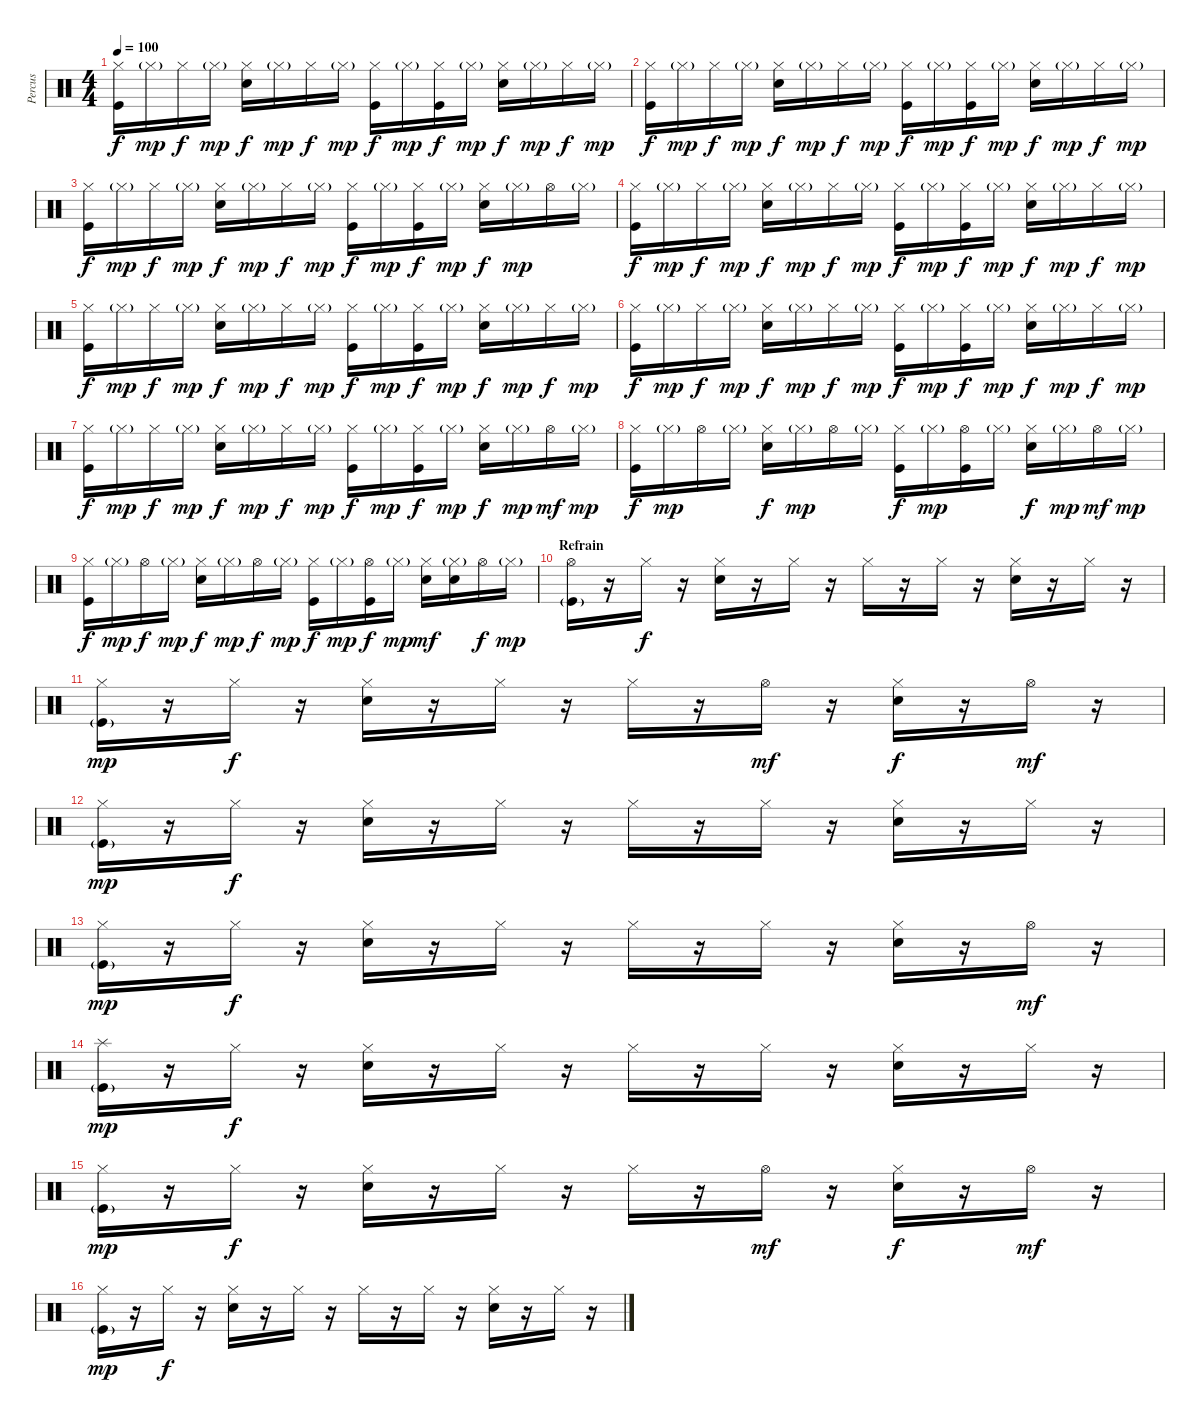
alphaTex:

\track ("Percus" "Percus") {instrument percussion}
\staff {score}
\articulation defaults
\ts (4 4)
\tempo 100
\clef neutral
\ks c
("Hi-Hat (closed)" "Kick (hit)").16{dy f} "Hi-Hat (closed)"{g}.16{dy mp} "Hi-Hat (closed)".16{dy f} "Hi-Hat (closed)"{g}.16{dy mp} ("Hi-Hat (closed)" "Snare (hit) 2").16{dy f} "Hi-Hat (closed)"{g}.16{dy mp} "Hi-Hat (closed)".16{dy f} "Hi-Hat (closed)"{g}.16{dy mp} ("Hi-Hat (closed)" "Kick (hit)").16{dy f} "Hi-Hat (closed)"{g}.16{dy mp} ("Hi-Hat (closed)" "Kick (hit)").16{dy f} "Hi-Hat (closed)"{g}.16{dy mp} ("Hi-Hat (closed)" "Snare (hit) 2").16{dy f} "Hi-Hat (closed)"{g}.16{dy mp} "Hi-Hat (closed)".16{dy f} "Hi-Hat (closed)"{g}.16{dy mp} |
("Hi-Hat (closed)" "Kick (hit)").16{dy f} "Hi-Hat (closed)"{g}.16{dy mp} "Hi-Hat (closed)".16{dy f} "Hi-Hat (closed)"{g}.16{dy mp} ("Hi-Hat (closed)" "Snare (hit) 2").16{dy f} "Hi-Hat (closed)"{g}.16{dy mp} "Hi-Hat (closed)".16{dy f} "Hi-Hat (closed)"{g}.16{dy mp} ("Hi-Hat (closed)" "Kick (hit)").16{dy f} "Hi-Hat (closed)"{g}.16{dy mp} ("Hi-Hat (closed)" "Kick (hit)").16{dy f} "Hi-Hat (closed)"{g}.16{dy mp} ("Hi-Hat (closed)" "Snare (hit) 2").16{dy f} "Hi-Hat (closed)"{g}.16{dy mp} "Hi-Hat (closed)".16{dy f} "Hi-Hat (closed)"{g}.16{dy mp} |
("Hi-Hat (closed)" "Kick (hit)").16{dy f} "Hi-Hat (closed)"{g}.16{dy mp} "Hi-Hat (closed)".16{dy f} "Hi-Hat (closed)"{g}.16{dy mp} ("Hi-Hat (closed)" "Snare (hit) 2").16{dy f} "Hi-Hat (closed)"{g}.16{dy mp} "Hi-Hat (closed)".16{dy f} "Hi-Hat (closed)"{g}.16{dy mp} ("Hi-Hat (closed)" "Kick (hit)").16{dy f} "Hi-Hat (closed)"{g}.16{dy mp} ("Hi-Hat (closed)" "Kick (hit)").16{dy f} "Hi-Hat (closed)"{g}.16{dy mp} ("Hi-Hat (closed)" "Snare (hit) 2").16{dy f} "Hi-Hat (closed)"{g}.16{dy mp} "Hi-Hat (open)".16 "Hi-Hat (closed)"{g}.16 |
("Hi-Hat (closed)" "Kick (hit)").16{dy f} "Hi-Hat (closed)"{g}.16{dy mp} "Hi-Hat (closed)".16{dy f} "Hi-Hat (closed)"{g}.16{dy mp} ("Hi-Hat (closed)" "Snare (hit) 2").16{dy f} "Hi-Hat (closed)"{g}.16{dy mp} "Hi-Hat (closed)".16{dy f} "Hi-Hat (closed)"{g}.16{dy mp} ("Hi-Hat (closed)" "Kick (hit)").16{dy f} "Hi-Hat (closed)"{g}.16{dy mp} ("Hi-Hat (closed)" "Kick (hit)").16{dy f} "Hi-Hat (closed)"{g}.16{dy mp} ("Hi-Hat (closed)" "Snare (hit) 2").16{dy f} "Hi-Hat (closed)"{g}.16{dy mp} "Hi-Hat (closed)".16{dy f} "Hi-Hat (closed)"{g}.16{dy mp} |
("Hi-Hat (closed)" "Kick (hit)").16{dy f} "Hi-Hat (closed)"{g}.16{dy mp} "Hi-Hat (closed)".16{dy f} "Hi-Hat (closed)"{g}.16{dy mp} ("Hi-Hat (closed)" "Snare (hit) 2").16{dy f} "Hi-Hat (closed)"{g}.16{dy mp} "Hi-Hat (closed)".16{dy f} "Hi-Hat (closed)"{g}.16{dy mp} ("Hi-Hat (closed)" "Kick (hit)").16{dy f} "Hi-Hat (closed)"{g}.16{dy mp} ("Hi-Hat (closed)" "Kick (hit)").16{dy f} "Hi-Hat (closed)"{g}.16{dy mp} ("Hi-Hat (closed)" "Snare (hit) 2").16{dy f} "Hi-Hat (closed)"{g}.16{dy mp} "Hi-Hat (closed)".16{dy f} "Hi-Hat (closed)"{g}.16{dy mp} |
("Hi-Hat (closed)" "Kick (hit)").16{dy f} "Hi-Hat (closed)"{g}.16{dy mp} "Hi-Hat (closed)".16{dy f} "Hi-Hat (closed)"{g}.16{dy mp} ("Hi-Hat (closed)" "Snare (hit) 2").16{dy f} "Hi-Hat (closed)"{g}.16{dy mp} "Hi-Hat (closed)".16{dy f} "Hi-Hat (closed)"{g}.16{dy mp} ("Hi-Hat (closed)" "Kick (hit)").16{dy f} "Hi-Hat (closed)"{g}.16{dy mp} ("Hi-Hat (closed)" "Kick (hit)").16{dy f} "Hi-Hat (closed)"{g}.16{dy mp} ("Hi-Hat (closed)" "Snare (hit) 2").16{dy f} "Hi-Hat (closed)"{g}.16{dy mp} "Hi-Hat (closed)".16{dy f} "Hi-Hat (closed)"{g}.16{dy mp} |
("Hi-Hat (closed)" "Kick (hit)").16{dy f} "Hi-Hat (closed)"{g}.16{dy mp} "Hi-Hat (closed)".16{dy f} "Hi-Hat (closed)"{g}.16{dy mp} ("Hi-Hat (closed)" "Snare (hit) 2").16{dy f} "Hi-Hat (closed)"{g}.16{dy mp} "Hi-Hat (closed)".16{dy f} "Hi-Hat (closed)"{g}.16{dy mp} ("Hi-Hat (closed)" "Kick (hit)").16{dy f} "Hi-Hat (closed)"{g}.16{dy mp} ("Hi-Hat (closed)" "Kick (hit)").16{dy f} "Hi-Hat (closed)"{g}.16{dy mp} ("Hi-Hat (closed)" "Snare (hit) 2").16{dy f} "Hi-Hat (closed)"{g}.16{dy mp} "Hi-Hat (open)".16{dy mf} "Hi-Hat (closed)"{g}.16{dy mp} |
("Hi-Hat (closed)" "Kick (hit)").16{dy f} "Hi-Hat (closed)"{g}.16{dy mp} "Hi-Hat (open)".16 "Hi-Hat (closed)"{g}.16 ("Hi-Hat (closed)" "Snare (hit) 2").16{dy f} "Hi-Hat (closed)"{g}.16{dy mp} "Hi-Hat (open)".16 "Hi-Hat (closed)"{g}.16 ("Hi-Hat (closed)" "Kick (hit)").16{dy f} "Hi-Hat (closed)"{g}.16{dy mp} ("Hi-Hat (open)" "Kick (hit)").16 "Hi-Hat (closed)"{g}.16 ("Hi-Hat (closed)" "Snare (hit) 2").16{dy f} "Hi-Hat (closed)"{g}.16{dy mp} "Hi-Hat (open)".16{dy mf} "Hi-Hat (closed)"{g}.16{dy mp} |
("Hi-Hat (closed)" "Kick (hit)").16{dy f} "Hi-Hat (closed)"{g}.16{dy mp} "Hi-Hat (open)".16{dy f} "Hi-Hat (closed)"{g}.16{dy mp} ("Hi-Hat (closed)" "Snare (hit) 2").16{dy f} "Hi-Hat (closed)"{g}.16{dy mp} "Hi-Hat (open)".16{dy f} "Hi-Hat (closed)"{g}.16{dy mp} ("Hi-Hat (closed)" "Kick (hit)").16{dy f} "Hi-Hat (closed)"{g}.16{dy mp} ("Hi-Hat (open)" "Kick (hit)").16{dy f} "Hi-Hat (closed)"{g}.16{dy mp} ("Hi-Hat (closed)" "Electric Snare (hit)").16{dy mf} ("Hi-Hat (closed)"{g} "Electric Snare (hit)").16 "Hi-Hat (open)".16{dy f} "Hi-Hat (closed)"{g}.16{dy mp} |
\section ("" "Refrain")
("Hi-Hat (open)" "Kick (hit)"{g}).16 r.16 "Hi-Hat (closed)".16{dy f} r.16 ("Hi-Hat (closed)" "Electric Snare (hit)").16 r.16 "Hi-Hat (closed)".16 r.16 "Hi-Hat (closed)".16 r.16 "Hi-Hat (closed)".16 r.16 ("Hi-Hat (closed)" "Electric Snare (hit)").16 r.16 "Hi-Hat (closed)".16 r.16 |
("Hi-Hat (closed)" "Kick (hit)"{g}).16{dy mp} r.16 "Hi-Hat (closed)".16{dy f} r.16 ("Hi-Hat (closed)" "Electric Snare (hit)").16 r.16 "Hi-Hat (closed)".16 r.16 "Hi-Hat (closed)".16 r.16 "Hi-Hat (open)".16{dy mf} r.16 ("Hi-Hat (closed)" "Electric Snare (hit)").16{dy f} r.16 "Hi-Hat (open)".16{dy mf} r.16 |
("Hi-Hat (closed)" "Kick (hit)"{g}).16{dy mp} r.16 "Hi-Hat (closed)".16{dy f} r.16 ("Hi-Hat (closed)" "Electric Snare (hit)").16 r.16 "Hi-Hat (closed)".16 r.16 "Hi-Hat (closed)".16 r.16 "Hi-Hat (closed)".16 r.16 ("Hi-Hat (closed)" "Electric Snare (hit)").16 r.16 "Hi-Hat (closed)".16 r.16 |
("Hi-Hat (closed)" "Kick (hit)"{g}).16{dy mp} r.16 "Hi-Hat (closed)".16{dy f} r.16 ("Hi-Hat (closed)" "Electric Snare (hit)").16 r.16 "Hi-Hat (closed)".16 r.16 "Hi-Hat (closed)".16 r.16 "Hi-Hat (closed)".16 r.16 ("Hi-Hat (closed)" "Electric Snare (hit)").16 r.16 "Hi-Hat (open)".16{dy mf} r.16 |
("Splash (hit)" "Kick (hit)"{g}).16{dy mp} r.16 "Hi-Hat (closed)".16{dy f} r.16 ("Hi-Hat (closed)" "Electric Snare (hit)").16 r.16 "Hi-Hat (closed)".16 r.16 "Hi-Hat (closed)".16 r.16 "Hi-Hat (closed)".16 r.16 ("Hi-Hat (closed)" "Electric Snare (hit)").16 r.16 "Hi-Hat (closed)".16 r.16 |
("Hi-Hat (closed)" "Kick (hit)"{g}).16{dy mp} r.16 "Hi-Hat (closed)".16{dy f} r.16 ("Hi-Hat (closed)" "Electric Snare (hit)").16 r.16 "Hi-Hat (closed)".16 r.16 "Hi-Hat (closed)".16 r.16 "Hi-Hat (open)".16{dy mf} r.16 ("Hi-Hat (closed)" "Electric Snare (hit)").16{dy f} r.16 "Hi-Hat (open)".16{dy mf} r.16 |
("Hi-Hat (closed)" "Kick (hit)"{g}).16{dy mp} r.16 "Hi-Hat (closed)".16{dy f} r.16 ("Hi-Hat (closed)" "Electric Snare (hit)").16 r.16 "Hi-Hat (closed)".16 r.16 "Hi-Hat (closed)".16 r.16 "Hi-Hat (closed)".16 r.16 ("Hi-Hat (closed)" "Electric Snare (hit)").16 r.16 "Hi-Hat (closed)".16 r.16
